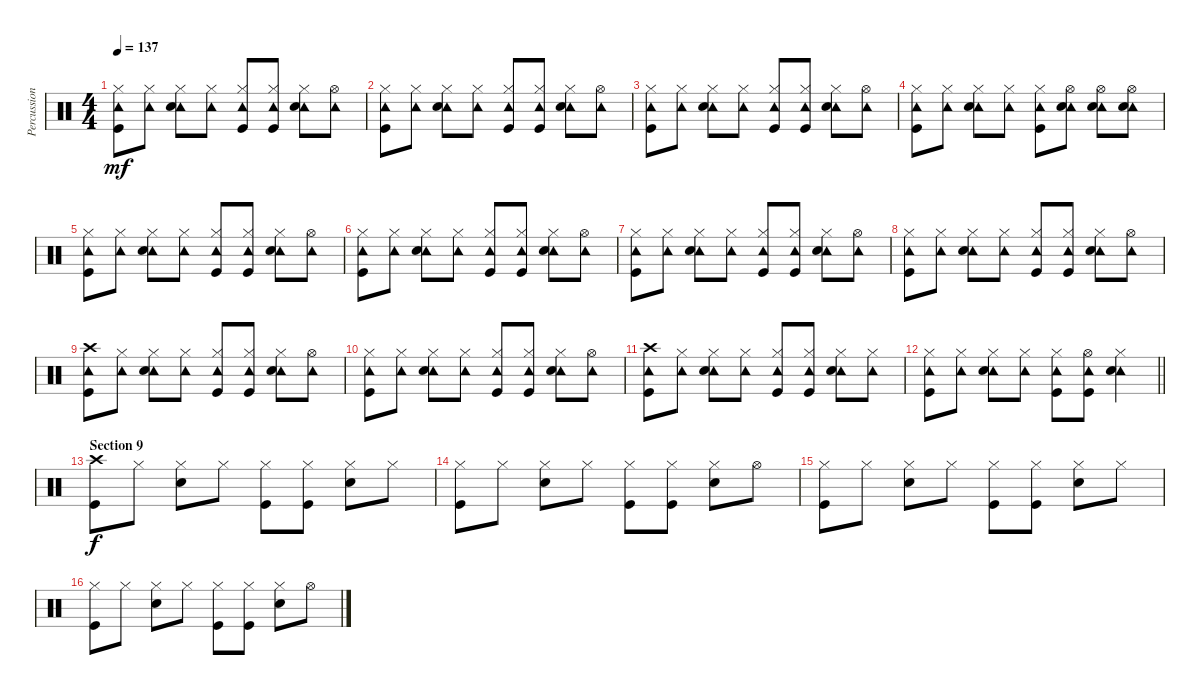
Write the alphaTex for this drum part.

\track ("Percussion" "Percussion") {instrument percussion}
\staff {score}
\articulation defaults
\ts (4 4)
\tempo 137
\clef neutral
\ks c
("Tambourine (hit)" "Hi-Hat (closed)" "Kick (hit)").8{dy mf} ("Tambourine (hit)" "Hi-Hat (closed)").8 ("Tambourine (hit)" "Hi-Hat (closed)" "Snare (hit) 2").8 ("Tambourine (hit)" "Hi-Hat (closed)").8 ("Tambourine (hit)" "Hi-Hat (closed)" "Kick (hit)").8 ("Tambourine (hit)" "Hi-Hat (closed)" "Kick (hit)").8 ("Tambourine (hit)" "Hi-Hat (closed)" "Snare (hit) 2").8 ("Tambourine (hit)" "Hi-Hat (open)").8 |
("Tambourine (hit)" "Hi-Hat (closed)" "Kick (hit)").8 ("Tambourine (hit)" "Hi-Hat (closed)").8 ("Tambourine (hit)" "Hi-Hat (closed)" "Snare (hit) 2").8 ("Tambourine (hit)" "Hi-Hat (closed)").8 ("Tambourine (hit)" "Hi-Hat (closed)" "Kick (hit)").8 ("Tambourine (hit)" "Hi-Hat (closed)" "Kick (hit)").8 ("Tambourine (hit)" "Hi-Hat (closed)" "Snare (hit) 2").8 ("Tambourine (hit)" "Hi-Hat (open)").8 |
("Tambourine (hit)" "Hi-Hat (closed)" "Kick (hit)").8 ("Tambourine (hit)" "Hi-Hat (closed)").8 ("Tambourine (hit)" "Hi-Hat (closed)" "Snare (hit) 2").8 ("Tambourine (hit)" "Hi-Hat (closed)").8 ("Tambourine (hit)" "Hi-Hat (closed)" "Kick (hit)").8 ("Tambourine (hit)" "Hi-Hat (closed)" "Kick (hit)").8 ("Tambourine (hit)" "Hi-Hat (closed)" "Snare (hit) 2").8 ("Tambourine (hit)" "Hi-Hat (open)").8 |
("Tambourine (hit)" "Hi-Hat (closed)" "Kick (hit)").8 ("Tambourine (hit)" "Hi-Hat (closed)").8 ("Tambourine (hit)" "Hi-Hat (closed)" "Snare (hit) 2").8 ("Tambourine (hit)" "Hi-Hat (closed)").8 ("Tambourine (hit)" "Hi-Hat (closed)" "Kick (hit)").8 ("Tambourine (hit)" "Hi-Hat (open)" "Snare (hit) 2").8 ("Tambourine (hit)" "Hi-Hat (open)" "Snare (hit) 2").8 ("Tambourine (hit)" "Hi-Hat (open)" "Snare (hit) 2").8 |
("Tambourine (hit)" "Hi-Hat (closed)" "Kick (hit)").8 ("Tambourine (hit)" "Hi-Hat (closed)").8 ("Tambourine (hit)" "Hi-Hat (closed)" "Snare (hit) 2").8 ("Tambourine (hit)" "Hi-Hat (closed)").8 ("Tambourine (hit)" "Hi-Hat (closed)" "Kick (hit)").8 ("Tambourine (hit)" "Hi-Hat (closed)" "Kick (hit)").8 ("Tambourine (hit)" "Hi-Hat (closed)" "Snare (hit) 2").8 ("Tambourine (hit)" "Hi-Hat (open)").8 |
("Tambourine (hit)" "Hi-Hat (closed)" "Kick (hit)").8 ("Tambourine (hit)" "Hi-Hat (closed)").8 ("Tambourine (hit)" "Hi-Hat (closed)" "Snare (hit) 2").8 ("Tambourine (hit)" "Hi-Hat (closed)").8 ("Tambourine (hit)" "Hi-Hat (closed)" "Kick (hit)").8 ("Tambourine (hit)" "Hi-Hat (closed)" "Kick (hit)").8 ("Tambourine (hit)" "Hi-Hat (closed)" "Snare (hit) 2").8 ("Tambourine (hit)" "Hi-Hat (open)").8 |
("Tambourine (hit)" "Hi-Hat (closed)" "Kick (hit)").8 ("Tambourine (hit)" "Hi-Hat (closed)").8 ("Tambourine (hit)" "Hi-Hat (closed)" "Snare (hit) 2").8 ("Tambourine (hit)" "Hi-Hat (closed)").8 ("Tambourine (hit)" "Hi-Hat (closed)" "Kick (hit)").8 ("Tambourine (hit)" "Hi-Hat (closed)" "Kick (hit)").8 ("Tambourine (hit)" "Hi-Hat (closed)" "Snare (hit) 2").8 ("Tambourine (hit)" "Hi-Hat (open)").8 |
("Tambourine (hit)" "Hi-Hat (closed)" "Kick (hit)").8 ("Tambourine (hit)" "Hi-Hat (closed)").8 ("Tambourine (hit)" "Hi-Hat (closed)" "Snare (hit) 2").8 ("Tambourine (hit)" "Hi-Hat (closed)").8 ("Tambourine (hit)" "Hi-Hat (closed)" "Kick (hit)").8 ("Tambourine (hit)" "Hi-Hat (closed)" "Kick (hit)").8 ("Tambourine (hit)" "Hi-Hat (closed)" "Snare (hit) 2").8 ("Tambourine (hit)" "Hi-Hat (open)").8 |
("Tambourine (hit)" "Crash high (hit)" "Kick (hit)").8 ("Tambourine (hit)" "Hi-Hat (closed)").8 ("Tambourine (hit)" "Hi-Hat (closed)" "Snare (hit) 2").8 ("Tambourine (hit)" "Hi-Hat (closed)").8 ("Tambourine (hit)" "Hi-Hat (closed)" "Kick (hit)").8 ("Tambourine (hit)" "Hi-Hat (closed)" "Kick (hit)").8 ("Tambourine (hit)" "Hi-Hat (closed)" "Snare (hit) 2").8 ("Tambourine (hit)" "Hi-Hat (open)").8 |
("Tambourine (hit)" "Hi-Hat (closed)" "Kick (hit)").8 ("Tambourine (hit)" "Hi-Hat (closed)").8 ("Tambourine (hit)" "Hi-Hat (closed)" "Snare (hit) 2").8 ("Tambourine (hit)" "Hi-Hat (closed)").8 ("Tambourine (hit)" "Hi-Hat (closed)" "Kick (hit)").8 ("Tambourine (hit)" "Hi-Hat (closed)" "Kick (hit)").8 ("Tambourine (hit)" "Hi-Hat (closed)" "Snare (hit) 2").8 ("Tambourine (hit)" "Hi-Hat (open)").8 |
("Tambourine (hit)" "Crash high (hit)" "Kick (hit)").8 ("Tambourine (hit)" "Hi-Hat (closed)").8 ("Tambourine (hit)" "Hi-Hat (closed)" "Snare (hit) 2").8 ("Tambourine (hit)" "Hi-Hat (closed)").8 ("Tambourine (hit)" "Hi-Hat (closed)" "Kick (hit)").8 ("Tambourine (hit)" "Hi-Hat (closed)" "Kick (hit)").8 ("Tambourine (hit)" "Hi-Hat (closed)" "Snare (hit) 2").8 ("Tambourine (hit)" "Hi-Hat (closed)").8 |
\barLineRight lightlight
("Tambourine (hit)" "Hi-Hat (closed)" "Kick (hit)").8 ("Tambourine (hit)" "Hi-Hat (closed)").8 ("Tambourine (hit)" "Hi-Hat (closed)" "Snare (hit) 2").8 ("Tambourine (hit)" "Hi-Hat (closed)").8 ("Tambourine (hit)" "Hi-Hat (closed)" "Kick (hit)").8 ("Tambourine (hit)" "Hi-Hat (open)" "Kick (hit)").8 ("Tambourine (hit)" "Hi-Hat (closed)" "Snare (hit) 2").4 |
\section ("" "Section 9")
("Crash high (hit)" "Kick (hit)").8{dy f} "Hi-Hat (closed)".8 ("Hi-Hat (closed)" "Snare (hit) 2").8 "Hi-Hat (closed)".8 ("Hi-Hat (closed)" "Kick (hit)").8 ("Hi-Hat (closed)" "Kick (hit)").8 ("Hi-Hat (closed)" "Snare (hit) 2").8 "Hi-Hat (closed)".8 |
("Hi-Hat (closed)" "Kick (hit)").8 "Hi-Hat (closed)".8 ("Hi-Hat (closed)" "Snare (hit) 2").8 "Hi-Hat (closed)".8 ("Hi-Hat (closed)" "Kick (hit)").8 ("Hi-Hat (closed)" "Kick (hit)").8 ("Hi-Hat (closed)" "Snare (hit) 2").8 "Hi-Hat (open)".8 |
("Hi-Hat (closed)" "Kick (hit)").8 "Hi-Hat (closed)".8 ("Hi-Hat (closed)" "Snare (hit) 2").8 "Hi-Hat (closed)".8 ("Hi-Hat (closed)" "Kick (hit)").8 ("Hi-Hat (closed)" "Kick (hit)").8 ("Hi-Hat (closed)" "Snare (hit) 2").8 "Hi-Hat (closed)".8 |
("Hi-Hat (closed)" "Kick (hit)").8 "Hi-Hat (closed)".8 ("Hi-Hat (closed)" "Snare (hit) 2").8 "Hi-Hat (closed)".8 ("Hi-Hat (closed)" "Kick (hit)").8 ("Hi-Hat (closed)" "Kick (hit)").8 ("Hi-Hat (closed)" "Snare (hit) 2").8 "Hi-Hat (open)".8
